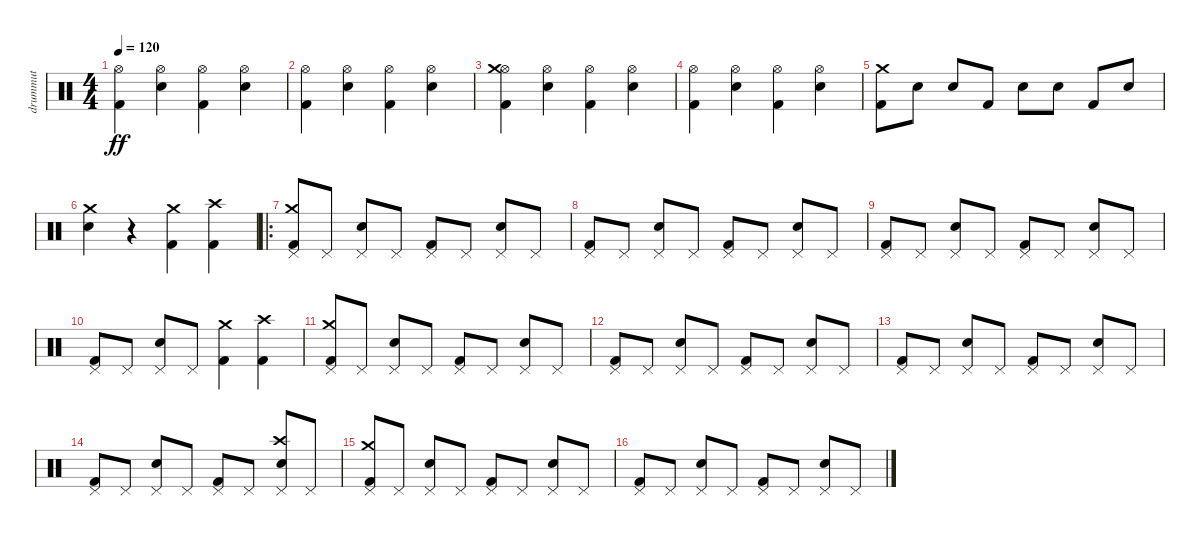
\track ("drummut" "drummut") {instrument percussion}
\staff {score}
\articulation defaults
\ts (4 4)
\tempo 120
\clef neutral
\ks c
("Kick (hit) 2" "Hi-Hat (open)").4{dy ff} ("Electric Snare (hit)" "Hi-Hat (open)").4 ("Kick (hit) 2" "Hi-Hat (open)").4 ("Electric Snare (hit)" "Hi-Hat (open)").4 |
("Kick (hit) 2" "Hi-Hat (open)").4 ("Electric Snare (hit)" "Hi-Hat (open)").4 ("Kick (hit) 2" "Hi-Hat (open)").4 ("Electric Snare (hit)" "Hi-Hat (open)").4 |
("Kick (hit) 2" "Hi-Hat (open)" "Crash medium (hit)").4 ("Electric Snare (hit)" "Hi-Hat (open)").4 ("Kick (hit) 2" "Hi-Hat (open)").4 ("Electric Snare (hit)" "Hi-Hat (open)").4 |
("Kick (hit) 2" "Hi-Hat (open)").4 ("Electric Snare (hit)" "Hi-Hat (open)").4 ("Kick (hit) 2" "Hi-Hat (open)").4 ("Electric Snare (hit)" "Hi-Hat (open)").4 |
("Kick (hit) 2" "Crash medium (hit)").8 "Electric Snare (hit)".8 "Electric Snare (hit)".8 "Kick (hit) 2".8 "Electric Snare (hit)".8 "Electric Snare (hit)".8 "Kick (hit) 2".8 "Electric Snare (hit)".8 |
("Electric Snare (hit)" "Crash medium (hit)").4 r.4 ("Kick (hit) 2" "Crash medium (hit)").4 ("Kick (hit) 2" "Crash high (hit)").4 |
\ro
("Kick (hit) 2" "Pedal Hi-Hat (hit)" "Crash medium (hit)").8 "Pedal Hi-Hat (hit)".8 ("Electric Snare (hit)" "Pedal Hi-Hat (hit)").8 "Pedal Hi-Hat (hit)".8 ("Kick (hit) 2" "Pedal Hi-Hat (hit)").8 "Pedal Hi-Hat (hit)".8 ("Electric Snare (hit)" "Pedal Hi-Hat (hit)").8 "Pedal Hi-Hat (hit)".8 |
("Kick (hit) 2" "Pedal Hi-Hat (hit)").8 "Pedal Hi-Hat (hit)".8 ("Electric Snare (hit)" "Pedal Hi-Hat (hit)").8 "Pedal Hi-Hat (hit)".8 ("Kick (hit) 2" "Pedal Hi-Hat (hit)").8 "Pedal Hi-Hat (hit)".8 ("Electric Snare (hit)" "Pedal Hi-Hat (hit)").8 "Pedal Hi-Hat (hit)".8 |
("Kick (hit) 2" "Pedal Hi-Hat (hit)").8 "Pedal Hi-Hat (hit)".8 ("Electric Snare (hit)" "Pedal Hi-Hat (hit)").8 "Pedal Hi-Hat (hit)".8 ("Kick (hit) 2" "Pedal Hi-Hat (hit)").8 "Pedal Hi-Hat (hit)".8 ("Electric Snare (hit)" "Pedal Hi-Hat (hit)").8 "Pedal Hi-Hat (hit)".8 |
("Kick (hit) 2" "Pedal Hi-Hat (hit)").8 "Pedal Hi-Hat (hit)".8 ("Electric Snare (hit)" "Pedal Hi-Hat (hit)").8 "Pedal Hi-Hat (hit)".8 ("Kick (hit) 2" "Crash medium (hit)").4 ("Kick (hit) 2" "Crash high (hit)").4 |
("Kick (hit) 2" "Pedal Hi-Hat (hit)" "Crash medium (hit)").8 "Pedal Hi-Hat (hit)".8 ("Electric Snare (hit)" "Pedal Hi-Hat (hit)").8 "Pedal Hi-Hat (hit)".8 ("Kick (hit) 2" "Pedal Hi-Hat (hit)").8 "Pedal Hi-Hat (hit)".8 ("Electric Snare (hit)" "Pedal Hi-Hat (hit)").8 "Pedal Hi-Hat (hit)".8 |
("Kick (hit) 2" "Pedal Hi-Hat (hit)").8 "Pedal Hi-Hat (hit)".8 ("Electric Snare (hit)" "Pedal Hi-Hat (hit)").8 "Pedal Hi-Hat (hit)".8 ("Kick (hit) 2" "Pedal Hi-Hat (hit)").8 "Pedal Hi-Hat (hit)".8 ("Electric Snare (hit)" "Pedal Hi-Hat (hit)").8 "Pedal Hi-Hat (hit)".8 |
("Kick (hit) 2" "Pedal Hi-Hat (hit)").8 "Pedal Hi-Hat (hit)".8 ("Electric Snare (hit)" "Pedal Hi-Hat (hit)").8 "Pedal Hi-Hat (hit)".8 ("Kick (hit) 2" "Pedal Hi-Hat (hit)").8 "Pedal Hi-Hat (hit)".8 ("Electric Snare (hit)" "Pedal Hi-Hat (hit)").8 "Pedal Hi-Hat (hit)".8 |
("Kick (hit) 2" "Pedal Hi-Hat (hit)").8 "Pedal Hi-Hat (hit)".8 ("Electric Snare (hit)" "Pedal Hi-Hat (hit)").8 "Pedal Hi-Hat (hit)".8 ("Kick (hit) 2" "Pedal Hi-Hat (hit)").8 "Pedal Hi-Hat (hit)".8 ("Electric Snare (hit)" "Pedal Hi-Hat (hit)" "Crash high (hit)").8 "Pedal Hi-Hat (hit)".8 |
("Kick (hit) 2" "Pedal Hi-Hat (hit)" "Crash medium (hit)").8 "Pedal Hi-Hat (hit)".8 ("Electric Snare (hit)" "Pedal Hi-Hat (hit)").8 "Pedal Hi-Hat (hit)".8 ("Kick (hit) 2" "Pedal Hi-Hat (hit)").8 "Pedal Hi-Hat (hit)".8 ("Electric Snare (hit)" "Pedal Hi-Hat (hit)").8 "Pedal Hi-Hat (hit)".8 |
("Kick (hit) 2" "Pedal Hi-Hat (hit)").8 "Pedal Hi-Hat (hit)".8 ("Electric Snare (hit)" "Pedal Hi-Hat (hit)").8 "Pedal Hi-Hat (hit)".8 ("Kick (hit) 2" "Pedal Hi-Hat (hit)").8 "Pedal Hi-Hat (hit)".8 ("Electric Snare (hit)" "Pedal Hi-Hat (hit)").8 "Pedal Hi-Hat (hit)".8
